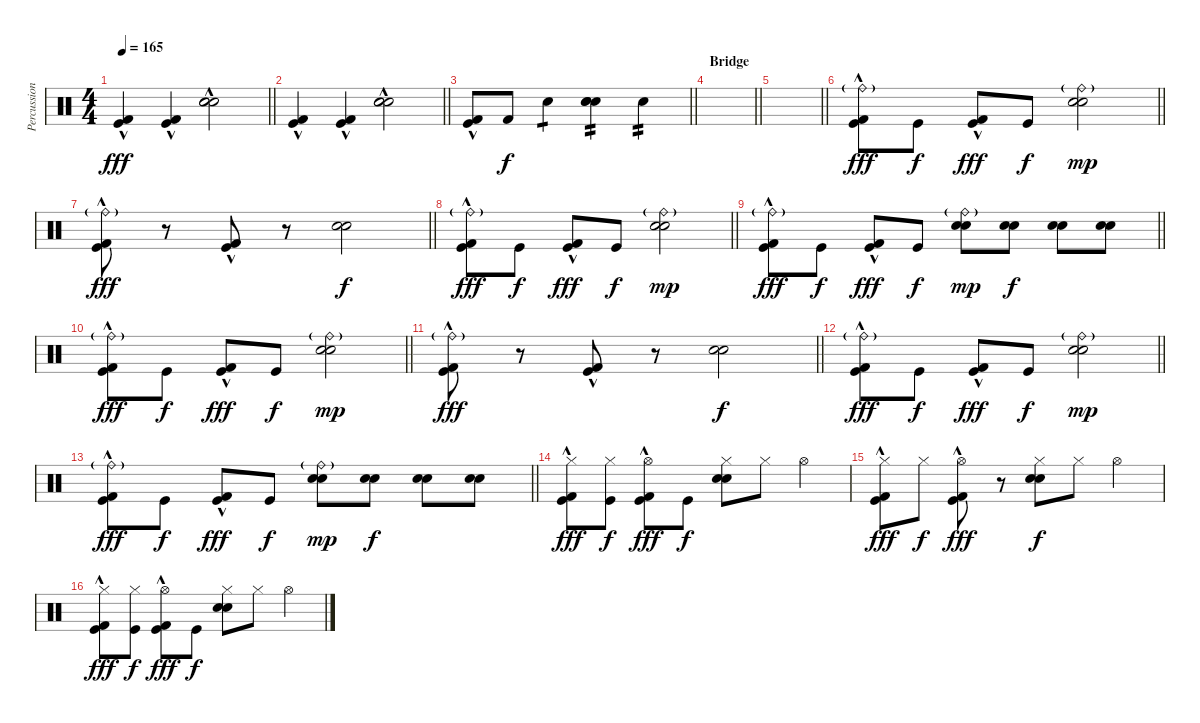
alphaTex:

\track ("Percussion" "Percussion") {instrument percussion}
\staff {score}
\articulation defaults
\ts (4 4)
\tempo 165
\clef neutral
\barLineRight lightlight
\ks c
("Kick (hit) 2"{hac} "Kick (hit)"{hac}).4{dy fff} ("Kick (hit) 2"{hac} "Kick (hit)"{hac}).4 ("Snare (hit) 2" "Hand Clap (hit)"{hac} "Electric Snare (hit)").2 |
\barLineRight lightlight
("Kick (hit) 2"{hac} "Kick (hit)"{hac}).4 ("Kick (hit) 2"{hac} "Kick (hit)"{hac}).4 ("Snare (hit) 2" "Hand Clap (hit)"{hac} "Electric Snare (hit)").2 |
\barLineRight lightlight
("Kick (hit) 2"{hac} "Kick (hit)"{hac}).8 "Kick (hit) 2".8{dy f} "Electric Snare (hit)".4{tp 1} ("Snare (hit) 2" "Hand Clap (hit)" "Electric Snare (hit)").4{tp 2} "Electric Snare (hit)".4{tp 2} |
\section ("" "Bridge")
\barLineRight lightlight
|
\barLineRight lightlight
|
\barLineRight lightlight
("Ride (bell)"{g} "Kick (hit) 2"{hac} "Kick (hit)").8{dy fff} "Kick (hit)".8{dy f} ("Kick (hit) 2"{hac} "Kick (hit)").8{dy fff} "Kick (hit)".8{dy f} ("Ride (bell)"{g} "Snare (hit) 2" "Electric Snare (hit)").2{dy mp} |
\barLineRight lightlight
("Ride (bell)"{g} "Kick (hit) 2"{hac} "Kick (hit)").8{dy fff} r.8 ("Kick (hit) 2"{hac} "Kick (hit)").8 r.8 ("Snare (hit) 2" "Electric Snare (hit)").2{dy f} |
\barLineRight lightlight
("Ride (bell)"{g} "Kick (hit) 2"{hac} "Kick (hit)").8{dy fff} "Kick (hit)".8{dy f} ("Kick (hit) 2"{hac} "Kick (hit)").8{dy fff} "Kick (hit)".8{dy f} ("Ride (bell)"{g} "Snare (hit) 2" "Electric Snare (hit)").2{dy mp} |
\barLineRight lightlight
("Ride (bell)"{g} "Kick (hit) 2"{hac} "Kick (hit)").8{dy fff} "Kick (hit)".8{dy f} ("Kick (hit) 2"{hac} "Kick (hit)").8{dy fff} "Kick (hit)".8{dy f} ("Ride (bell)"{g} "Snare (hit) 2" "Electric Snare (hit)").8{dy mp} ("Snare (hit) 2" "Electric Snare (hit)").8{dy f} ("Snare (hit) 2" "Electric Snare (hit)").8 ("Snare (hit) 2" "Electric Snare (hit)").8 |
\barLineRight lightlight
("Ride (bell)"{g} "Kick (hit) 2"{hac} "Kick (hit)").8{dy fff} "Kick (hit)".8{dy f} ("Kick (hit) 2"{hac} "Kick (hit)").8{dy fff} "Kick (hit)".8{dy f} ("Ride (bell)"{g} "Snare (hit) 2" "Electric Snare (hit)").2{dy mp} |
\barLineRight lightlight
("Ride (bell)"{g} "Kick (hit) 2"{hac} "Kick (hit)").8{dy fff} r.8 ("Kick (hit) 2"{hac} "Kick (hit)").8 r.8 ("Snare (hit) 2" "Electric Snare (hit)").2{dy f} |
\barLineRight lightlight
("Ride (bell)"{g} "Kick (hit) 2"{hac} "Kick (hit)").8{dy fff} "Kick (hit)".8{dy f} ("Kick (hit) 2"{hac} "Kick (hit)").8{dy fff} "Kick (hit)".8{dy f} ("Ride (bell)"{g} "Snare (hit) 2" "Electric Snare (hit)").2{dy mp} |
\barLineRight lightlight
("Ride (bell)"{g} "Kick (hit) 2"{hac} "Kick (hit)").8{dy fff} "Kick (hit)".8{dy f} ("Kick (hit) 2"{hac} "Kick (hit)").8{dy fff} "Kick (hit)".8{dy f} ("Ride (bell)"{g} "Snare (hit) 2" "Electric Snare (hit)").8{dy mp} ("Snare (hit) 2" "Electric Snare (hit)").8{dy f} ("Snare (hit) 2" "Electric Snare (hit)").8 ("Snare (hit) 2" "Electric Snare (hit)").8 |
("Hi-Hat (closed)" "Kick (hit) 2"{hac} "Kick (hit)").8{dy fff} ("Hi-Hat (closed)" "Kick (hit)").8{dy f} ("Hi-Hat (open)" "Kick (hit) 2"{hac} "Kick (hit)").8{dy fff} "Kick (hit)".8{dy f} ("Hi-Hat (closed)" "Snare (hit) 2" "Electric Snare (hit)").8 "Hi-Hat (closed)".8 "Hi-Hat (open)".4 |
("Hi-Hat (closed)" "Kick (hit) 2"{hac} "Kick (hit)").8{dy fff} "Hi-Hat (closed)".8{dy f} ("Hi-Hat (open)" "Kick (hit) 2"{hac} "Kick (hit)").8{dy fff} r.8 ("Hi-Hat (closed)" "Snare (hit) 2" "Electric Snare (hit)").8{dy f} "Hi-Hat (closed)".8 "Hi-Hat (open)".4 |
("Hi-Hat (closed)" "Kick (hit) 2"{hac} "Kick (hit)").8{dy fff} ("Hi-Hat (closed)" "Kick (hit)").8{dy f} ("Hi-Hat (open)" "Kick (hit) 2"{hac} "Kick (hit)").8{dy fff} "Kick (hit)".8{dy f} ("Hi-Hat (closed)" "Snare (hit) 2" "Electric Snare (hit)").8 "Hi-Hat (closed)".8 "Hi-Hat (open)".4
